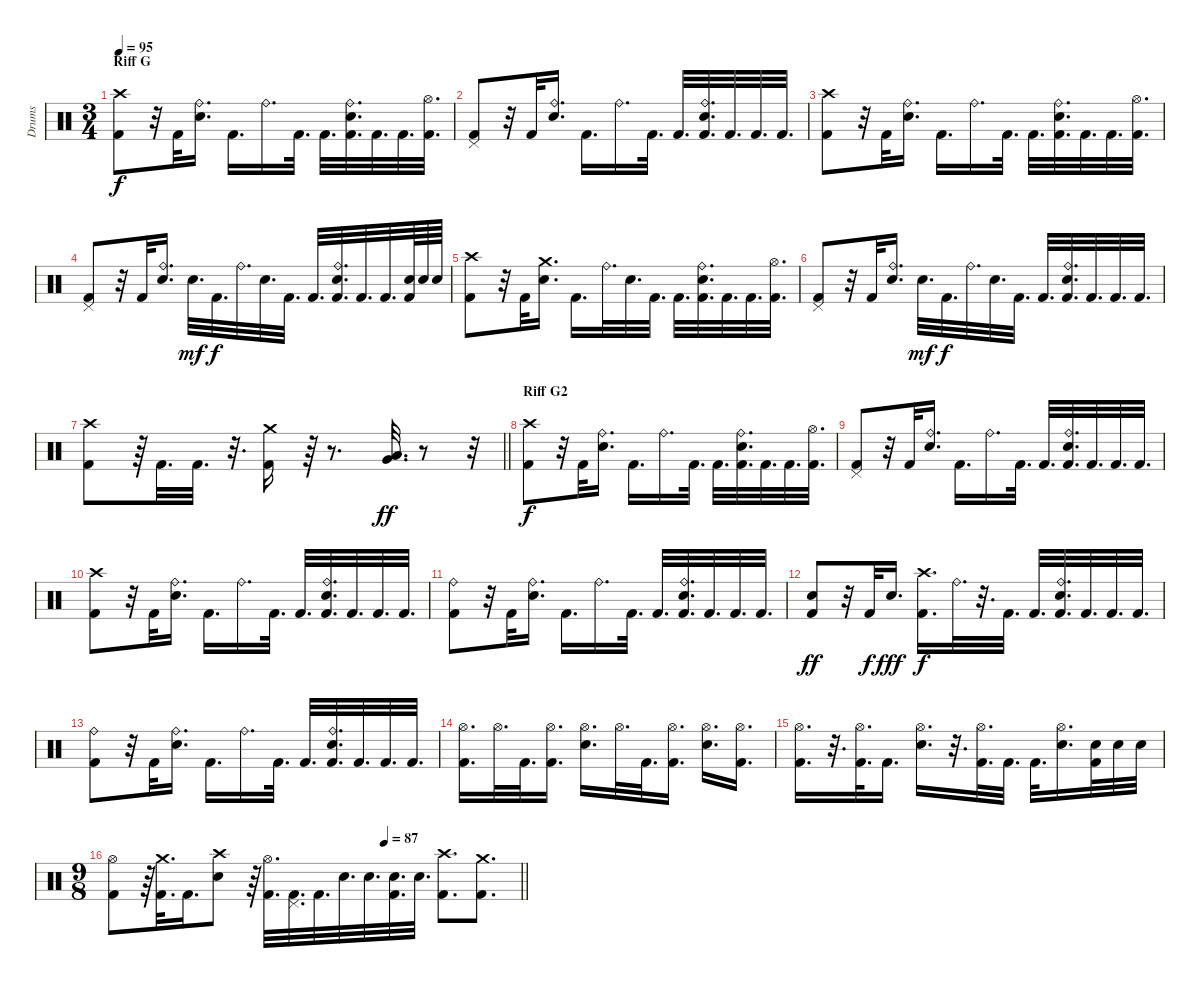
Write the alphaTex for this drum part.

\track ("Drums" "Drums") {instrument percussion}
\staff {score}
\articulation defaults
\ts (3 4)
\section ("" "Riff G")
\tempo 95
\clef neutral
\ks c
("Crash high (hit)" "Kick (hit) 2").8{dy f} r.32 "Kick (hit) 2".32 ("Ride (bell)" "Electric Snare (hit)").16{d} "Kick (hit) 2".16{d} "Ride (bell)".16{d} "Kick (hit) 2".32{d} "Kick (hit) 2".32{d} ("Ride (bell)" "Electric Snare (hit)" "Kick (hit) 2").32{d} "Kick (hit) 2".32{d} "Kick (hit) 2".32{d} ("Hi-Hat (open)" "Kick (hit) 2").32{d} |
("Pedal Hi-Hat (hit)" "Kick (hit) 2").8 r.32 "Kick (hit) 2".32 ("Ride (bell)" "Electric Snare (hit)").16{d} "Kick (hit) 2".16{d} "Ride (bell)".16{d} "Kick (hit) 2".32{d} "Kick (hit) 2".32{d} ("Ride (bell)" "Electric Snare (hit)" "Kick (hit) 2").32{d} "Kick (hit) 2".32{d} "Kick (hit) 2".32{d} "Kick (hit) 2".32{d} |
("Crash high (hit)" "Kick (hit) 2").8 r.32 "Kick (hit) 2".32 ("Ride (bell)" "Electric Snare (hit)").16{d} "Kick (hit) 2".16{d} "Ride (bell)".16{d} "Kick (hit) 2".32{d} "Kick (hit) 2".32{d} ("Ride (bell)" "Electric Snare (hit)" "Kick (hit) 2").32{d} "Kick (hit) 2".32{d} "Kick (hit) 2".32{d} ("Hi-Hat (open)" "Kick (hit) 2").32{d} |
("Pedal Hi-Hat (hit)" "Kick (hit) 2").8 r.32 "Kick (hit) 2".32 ("Ride (bell)" "Electric Snare (hit)").16{d} "Electric Snare (hit)".32{d dy mf} "Kick (hit) 2".32{d dy f} "Ride (bell)".32{d} "Electric Snare (hit)".32{d} "Kick (hit) 2".32{d} "Kick (hit) 2".32{d} ("Ride (bell)" "Electric Snare (hit)" "Kick (hit) 2").32{d} "Kick (hit) 2".32{d} "Kick (hit) 2".32{d} ("Electric Snare (hit)" "Kick (hit) 2").64 "Electric Snare (hit)".64 "Electric Snare (hit)".64 |
("Crash high (hit)" "Kick (hit) 2").8 r.32 "Kick (hit) 2".32 ("Crash medium (hit)" "Electric Snare (hit)").16{d} "Kick (hit) 2".16{d} "Ride (bell)".32{d} "Electric Snare (hit)".32{d} "Kick (hit) 2".32{d} "Kick (hit) 2".32{d} ("Ride (bell)" "Electric Snare (hit)" "Kick (hit) 2").32{d} "Kick (hit) 2".32{d} "Kick (hit) 2".32{d} ("Hi-Hat (open)" "Kick (hit) 2").32{d} |
("Pedal Hi-Hat (hit)" "Kick (hit) 2").8 r.32 "Kick (hit) 2".32 ("Ride (bell)" "Electric Snare (hit)").16{d} "Electric Snare (hit)".32{d dy mf} "Kick (hit) 2".32{d dy f} "Ride (bell)".32{d} "Electric Snare (hit)".32{d} "Kick (hit) 2".32{d} "Kick (hit) 2".32{d} ("Ride (bell)" "Electric Snare (hit)" "Kick (hit) 2").32{d} "Kick (hit) 2".32{d} "Kick (hit) 2".32{d} "Kick (hit) 2".32{d} |
\barLineRight lightlight
("Crash high (hit)" "Kick (hit) 2").8 r.64 "Kick (hit) 2".32{d} "Kick (hit) 2".32{d} r.32{d} ("Crash medium (hit)" "Kick (hit) 2").16 r.64 r.8{d} ("Very Low Tom (hit)" "Low Floor Tom (hit)").32{d dy ff} r.8 r.32 |
\section ("" "Riff G2")
("Crash high (hit)" "Kick (hit) 2").8{dy f} r.32 "Kick (hit) 2".32 ("Ride (bell)" "Electric Snare (hit)").16{d} "Kick (hit) 2".16{d} "Ride (bell)".16{d} "Kick (hit) 2".32{d} "Kick (hit) 2".32{d} ("Ride (bell)" "Electric Snare (hit)" "Kick (hit) 2").32{d} "Kick (hit) 2".32{d} "Kick (hit) 2".32{d} ("Hi-Hat (open)" "Kick (hit) 2").32{d} |
("Pedal Hi-Hat (hit)" "Kick (hit) 2").8 r.32 "Kick (hit) 2".32 ("Ride (bell)" "Electric Snare (hit)").16{d} "Kick (hit) 2".16{d} "Ride (bell)".16{d} "Kick (hit) 2".32{d} "Kick (hit) 2".32{d} ("Ride (bell)" "Electric Snare (hit)" "Kick (hit) 2").32{d} "Kick (hit) 2".32{d} "Kick (hit) 2".32{d} "Kick (hit) 2".32{d} |
("Crash high (hit)" "Kick (hit) 2").8 r.32 "Kick (hit) 2".32 ("Ride (bell)" "Electric Snare (hit)").16{d} "Kick (hit) 2".16{d} "Ride (bell)".16{d} "Kick (hit) 2".32{d} "Kick (hit) 2".32{d} ("Ride (bell)" "Electric Snare (hit)" "Kick (hit) 2").32{d} "Kick (hit) 2".32{d} "Kick (hit) 2".32{d} "Kick (hit) 2".32{d} |
("Ride (bell)" "Kick (hit) 2").8 r.32 "Kick (hit) 2".32 ("Ride (bell)" "Electric Snare (hit)").16{d} "Kick (hit) 2".16{d} "Ride (bell)".16{d} "Kick (hit) 2".32{d} "Kick (hit) 2".32{d} ("Ride (bell)" "Electric Snare (hit)" "Kick (hit) 2").32{d} "Kick (hit) 2".32{d} "Kick (hit) 2".32{d} "Kick (hit) 2".32{d} |
("Electric Snare (hit)" "Kick (hit) 2").8{dy ff} r.32 "Kick (hit) 2".32{dy f} "Electric Snare (hit)".16{d dy fff} ("Crash high (hit)" "Kick (hit) 2").16{d dy f} "Ride (bell)".32{d} r.32{d} "Kick (hit) 2".32{d} "Kick (hit) 2".32{d} ("Ride (bell)" "Electric Snare (hit)" "Kick (hit) 2").32{d} "Kick (hit) 2".32{d} "Kick (hit) 2".32{d} "Kick (hit) 2".32{d} |
("Ride (bell)" "Kick (hit) 2").8 r.32 "Kick (hit) 2".32 ("Ride (bell)" "Electric Snare (hit)").16{d} "Kick (hit) 2".16{d} "Ride (bell)".16{d} "Kick (hit) 2".32{d} "Kick (hit) 2".32{d} ("Ride (bell)" "Electric Snare (hit)" "Kick (hit) 2").32{d} "Kick (hit) 2".32{d} "Kick (hit) 2".32{d} "Kick (hit) 2".32{d} |
("Hi-Hat (open)" "Kick (hit) 2").16{d} "Hi-Hat (open)".32{d} "Kick (hit) 2".32{d} ("Hi-Hat (open)" "Kick (hit) 2").16{d} ("Hi-Hat (open)" "Electric Snare (hit)").16{d} "Hi-Hat (open)".32{d} "Kick (hit) 2".32{d} ("Hi-Hat (open)" "Kick (hit) 2").16{d} ("Hi-Hat (open)" "Electric Snare (hit)").16{d} ("Hi-Hat (open)" "Kick (hit) 2").16{d} |
("Hi-Hat (open)" "Kick (hit) 2").16{d} r.32{d} ("Hi-Hat (open)" "Kick (hit) 2").32{d} "Kick (hit) 2".16{d} ("Hi-Hat (open)" "Electric Snare (hit)").16{d} r.32{d} ("Hi-Hat (open)" "Kick (hit) 2").32{d} "Kick (hit) 2".32{d} "Kick (hit) 2".32{d} ("Hi-Hat (open)" "Electric Snare (hit)").16{d} ("Electric Snare (hit)" "Kick (hit) 2").32 "Electric Snare (hit)".32 "Electric Snare (hit)".32 |
\ts (9 8)
\tempo (87 0.6666666666666666)
\barLineRight lightlight
("Hi-Hat (open)" "Kick (hit) 2").8 r.64 ("Crash medium (hit)" "Kick (hit) 2").32{d} "Kick (hit) 2".16{d} ("Crash high (hit)" "Electric Snare (hit)").8 r.64 ("Hi-Hat (open)" "Kick (hit) 2").32{d} ("Pedal Hi-Hat (hit)" "Kick (hit) 2").32{d} "Kick (hit) 2".32{d} "Electric Snare (hit)".32{d} "Electric Snare (hit)".32{d} ("Electric Snare (hit)" "Kick (hit) 2").32{d} "Electric Snare (hit)".32{d} ("Crash high (hit)" "Kick (hit) 2").8{d} ("Crash medium (hit)" "Kick (hit) 2").8{d}
